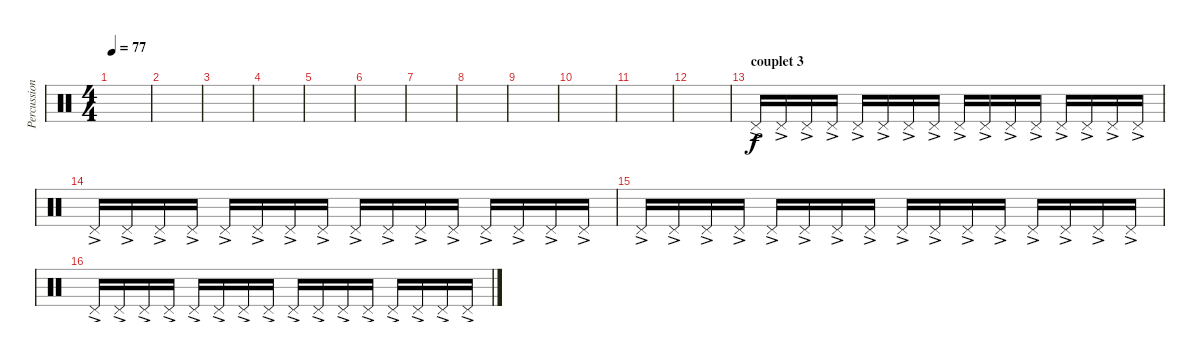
\track ("Percussions (hit-hat)" "Percussion") {instrument percussion}
\staff {score}
\articulation defaults
\ts (4 4)
\tempo 77
\clef neutral
\ks c
|
|
|
|
|
|
|
|
|
|
|
|
\section ("" "couplet 3")
"Pedal Hi-Hat (hit)"{ac}.16 "Pedal Hi-Hat (hit)"{ac}.16 "Pedal Hi-Hat (hit)"{ac}.16 "Pedal Hi-Hat (hit)"{ac}.16 "Pedal Hi-Hat (hit)"{ac}.16 "Pedal Hi-Hat (hit)"{ac}.16 "Pedal Hi-Hat (hit)"{ac}.16 "Pedal Hi-Hat (hit)"{ac}.16 "Pedal Hi-Hat (hit)"{ac}.16 "Pedal Hi-Hat (hit)"{ac}.16 "Pedal Hi-Hat (hit)"{ac}.16 "Pedal Hi-Hat (hit)"{ac}.16 "Pedal Hi-Hat (hit)"{ac}.16 "Pedal Hi-Hat (hit)"{ac}.16 "Pedal Hi-Hat (hit)"{ac}.16 "Pedal Hi-Hat (hit)"{ac}.16 |
"Pedal Hi-Hat (hit)"{ac}.16 "Pedal Hi-Hat (hit)"{ac}.16 "Pedal Hi-Hat (hit)"{ac}.16 "Pedal Hi-Hat (hit)"{ac}.16 "Pedal Hi-Hat (hit)"{ac}.16 "Pedal Hi-Hat (hit)"{ac}.16 "Pedal Hi-Hat (hit)"{ac}.16 "Pedal Hi-Hat (hit)"{ac}.16 "Pedal Hi-Hat (hit)"{ac}.16 "Pedal Hi-Hat (hit)"{ac}.16 "Pedal Hi-Hat (hit)"{ac}.16 "Pedal Hi-Hat (hit)"{ac}.16 "Pedal Hi-Hat (hit)"{ac}.16 "Pedal Hi-Hat (hit)"{ac}.16 "Pedal Hi-Hat (hit)"{ac}.16 "Pedal Hi-Hat (hit)"{ac}.16 |
"Pedal Hi-Hat (hit)"{ac}.16 "Pedal Hi-Hat (hit)"{ac}.16 "Pedal Hi-Hat (hit)"{ac}.16 "Pedal Hi-Hat (hit)"{ac}.16 "Pedal Hi-Hat (hit)"{ac}.16 "Pedal Hi-Hat (hit)"{ac}.16 "Pedal Hi-Hat (hit)"{ac}.16 "Pedal Hi-Hat (hit)"{ac}.16 "Pedal Hi-Hat (hit)"{ac}.16 "Pedal Hi-Hat (hit)"{ac}.16 "Pedal Hi-Hat (hit)"{ac}.16 "Pedal Hi-Hat (hit)"{ac}.16 "Pedal Hi-Hat (hit)"{ac}.16 "Pedal Hi-Hat (hit)"{ac}.16 "Pedal Hi-Hat (hit)"{ac}.16 "Pedal Hi-Hat (hit)"{ac}.16 |
"Pedal Hi-Hat (hit)"{ac}.16 "Pedal Hi-Hat (hit)"{ac}.16 "Pedal Hi-Hat (hit)"{ac}.16 "Pedal Hi-Hat (hit)"{ac}.16 "Pedal Hi-Hat (hit)"{ac}.16 "Pedal Hi-Hat (hit)"{ac}.16 "Pedal Hi-Hat (hit)"{ac}.16 "Pedal Hi-Hat (hit)"{ac}.16 "Pedal Hi-Hat (hit)"{ac}.16 "Pedal Hi-Hat (hit)"{ac}.16 "Pedal Hi-Hat (hit)"{ac}.16 "Pedal Hi-Hat (hit)"{ac}.16 "Pedal Hi-Hat (hit)"{ac}.16 "Pedal Hi-Hat (hit)"{ac}.16 "Pedal Hi-Hat (hit)"{ac}.16 "Pedal Hi-Hat (hit)"{ac}.16
